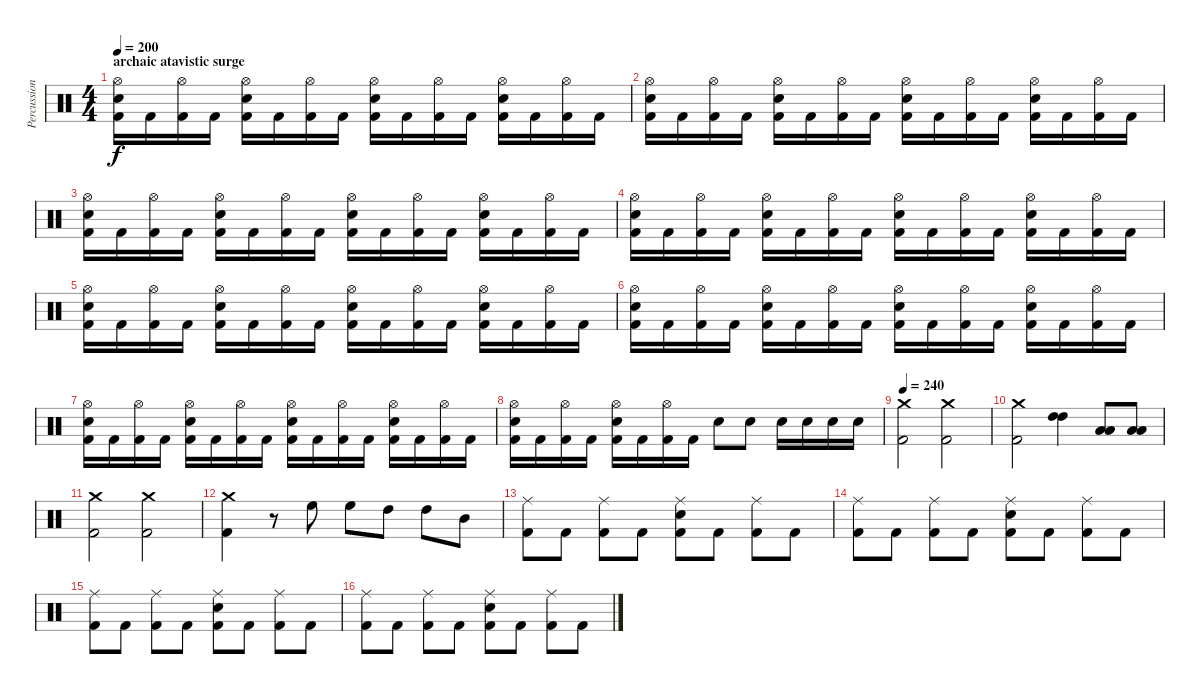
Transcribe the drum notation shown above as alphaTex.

\track ("Percussions" "Percussion") {instrument percussion}
\staff {score}
\articulation defaults
\ts (4 4)
\section ("" "archaic atavistic surge")
\tempo 200
\clef neutral
\ks c
("Hi-Hat (open)" "Electric Snare (hit)" "Kick (hit) 2").16{dy f} "Kick (hit) 2".16 ("Hi-Hat (open)" "Kick (hit) 2").16 "Kick (hit) 2".16 ("Hi-Hat (open)" "Electric Snare (hit)" "Kick (hit) 2").16 "Kick (hit) 2".16 ("Hi-Hat (open)" "Kick (hit) 2").16 "Kick (hit) 2".16 ("Hi-Hat (open)" "Electric Snare (hit)" "Kick (hit) 2").16 "Kick (hit) 2".16 ("Hi-Hat (open)" "Kick (hit) 2").16 "Kick (hit) 2".16 ("Hi-Hat (open)" "Electric Snare (hit)" "Kick (hit) 2").16 "Kick (hit) 2".16 ("Hi-Hat (open)" "Kick (hit) 2").16 "Kick (hit) 2".16 |
("Hi-Hat (open)" "Electric Snare (hit)" "Kick (hit) 2").16 "Kick (hit) 2".16 ("Hi-Hat (open)" "Kick (hit) 2").16 "Kick (hit) 2".16 ("Hi-Hat (open)" "Electric Snare (hit)" "Kick (hit) 2").16 "Kick (hit) 2".16 ("Hi-Hat (open)" "Kick (hit) 2").16 "Kick (hit) 2".16 ("Hi-Hat (open)" "Electric Snare (hit)" "Kick (hit) 2").16 "Kick (hit) 2".16 ("Hi-Hat (open)" "Kick (hit) 2").16 "Kick (hit) 2".16 ("Hi-Hat (open)" "Electric Snare (hit)" "Kick (hit) 2").16 "Kick (hit) 2".16 ("Hi-Hat (open)" "Kick (hit) 2").16 "Kick (hit) 2".16 |
("Hi-Hat (open)" "Electric Snare (hit)" "Kick (hit) 2").16 "Kick (hit) 2".16 ("Hi-Hat (open)" "Kick (hit) 2").16 "Kick (hit) 2".16 ("Hi-Hat (open)" "Electric Snare (hit)" "Kick (hit) 2").16 "Kick (hit) 2".16 ("Hi-Hat (open)" "Kick (hit) 2").16 "Kick (hit) 2".16 ("Hi-Hat (open)" "Electric Snare (hit)" "Kick (hit) 2").16 "Kick (hit) 2".16 ("Hi-Hat (open)" "Kick (hit) 2").16 "Kick (hit) 2".16 ("Hi-Hat (open)" "Electric Snare (hit)" "Kick (hit) 2").16 "Kick (hit) 2".16 ("Hi-Hat (open)" "Kick (hit) 2").16 "Kick (hit) 2".16 |
("Hi-Hat (open)" "Electric Snare (hit)" "Kick (hit) 2").16 "Kick (hit) 2".16 ("Hi-Hat (open)" "Kick (hit) 2").16 "Kick (hit) 2".16 ("Hi-Hat (open)" "Electric Snare (hit)" "Kick (hit) 2").16 "Kick (hit) 2".16 ("Hi-Hat (open)" "Kick (hit) 2").16 "Kick (hit) 2".16 ("Hi-Hat (open)" "Electric Snare (hit)" "Kick (hit) 2").16 "Kick (hit) 2".16 ("Hi-Hat (open)" "Kick (hit) 2").16 "Kick (hit) 2".16 ("Hi-Hat (open)" "Electric Snare (hit)" "Kick (hit) 2").16 "Kick (hit) 2".16 ("Hi-Hat (open)" "Kick (hit) 2").16 "Kick (hit) 2".16 |
("Hi-Hat (open)" "Electric Snare (hit)" "Kick (hit) 2").16 "Kick (hit) 2".16 ("Hi-Hat (open)" "Kick (hit) 2").16 "Kick (hit) 2".16 ("Hi-Hat (open)" "Electric Snare (hit)" "Kick (hit) 2").16 "Kick (hit) 2".16 ("Hi-Hat (open)" "Kick (hit) 2").16 "Kick (hit) 2".16 ("Hi-Hat (open)" "Electric Snare (hit)" "Kick (hit) 2").16 "Kick (hit) 2".16 ("Hi-Hat (open)" "Kick (hit) 2").16 "Kick (hit) 2".16 ("Hi-Hat (open)" "Electric Snare (hit)" "Kick (hit) 2").16 "Kick (hit) 2".16 ("Hi-Hat (open)" "Kick (hit) 2").16 "Kick (hit) 2".16 |
("Hi-Hat (open)" "Electric Snare (hit)" "Kick (hit) 2").16 "Kick (hit) 2".16 ("Hi-Hat (open)" "Kick (hit) 2").16 "Kick (hit) 2".16 ("Hi-Hat (open)" "Electric Snare (hit)" "Kick (hit) 2").16 "Kick (hit) 2".16 ("Hi-Hat (open)" "Kick (hit) 2").16 "Kick (hit) 2".16 ("Hi-Hat (open)" "Electric Snare (hit)" "Kick (hit) 2").16 "Kick (hit) 2".16 ("Hi-Hat (open)" "Kick (hit) 2").16 "Kick (hit) 2".16 ("Hi-Hat (open)" "Electric Snare (hit)" "Kick (hit) 2").16 "Kick (hit) 2".16 ("Hi-Hat (open)" "Kick (hit) 2").16 "Kick (hit) 2".16 |
("Hi-Hat (open)" "Electric Snare (hit)" "Kick (hit) 2").16 "Kick (hit) 2".16 ("Hi-Hat (open)" "Kick (hit) 2").16 "Kick (hit) 2".16 ("Hi-Hat (open)" "Electric Snare (hit)" "Kick (hit) 2").16 "Kick (hit) 2".16 ("Hi-Hat (open)" "Kick (hit) 2").16 "Kick (hit) 2".16 ("Hi-Hat (open)" "Electric Snare (hit)" "Kick (hit) 2").16 "Kick (hit) 2".16 ("Hi-Hat (open)" "Kick (hit) 2").16 "Kick (hit) 2".16 ("Hi-Hat (open)" "Electric Snare (hit)" "Kick (hit) 2").16 "Kick (hit) 2".16 ("Hi-Hat (open)" "Kick (hit) 2").16 "Kick (hit) 2".16 |
("Hi-Hat (open)" "Electric Snare (hit)" "Kick (hit) 2").16 "Kick (hit) 2".16 ("Hi-Hat (open)" "Kick (hit) 2").16 "Kick (hit) 2".16 ("Hi-Hat (open)" "Electric Snare (hit)" "Kick (hit) 2").16 "Kick (hit) 2".16 ("Hi-Hat (open)" "Kick (hit) 2").16 "Kick (hit) 2".16 "Electric Snare (hit)".8 "Electric Snare (hit)".8 "Electric Snare (hit)".16 "Electric Snare (hit)".16 "Electric Snare (hit)".16 "Electric Snare (hit)".16 |
\tempo 240
("Crash medium (hit)" "Kick (hit) 2").2 ("Crash medium (hit)" "Kick (hit) 2").2 |
("Crash medium (hit)" "Kick (hit) 2").2 ("High Tom (hit)" "High Tom (hit)").4 ("Low Tom (hit)" "Low Tom (hit)").8 ("Low Tom (hit)" "Low Tom (hit)").8 |
("Crash medium (hit)" "Kick (hit) 2").2 ("Crash medium (hit)" "Kick (hit) 2").2 |
("Crash medium (hit)" "Kick (hit) 2").4 r.8 "High Floor Tom (hit)".8 "High Floor Tom (hit)".8 "High Tom (hit)".8 "High Tom (hit)".8 "Mid Tom (hit)".8 |
("Ride (middle)" "Kick (hit) 2").8 "Kick (hit) 2".8 ("Ride (middle)" "Kick (hit) 2").8 "Kick (hit) 2".8 ("Ride (middle)" "Electric Snare (hit)" "Kick (hit) 2").8 "Kick (hit) 2".8 ("Ride (middle)" "Kick (hit) 2").8 "Kick (hit) 2".8 |
("Ride (middle)" "Kick (hit) 2").8 "Kick (hit) 2".8 ("Ride (middle)" "Kick (hit) 2").8 "Kick (hit) 2".8 ("Ride (middle)" "Electric Snare (hit)" "Kick (hit) 2").8 "Kick (hit) 2".8 ("Ride (middle)" "Kick (hit) 2").8 "Kick (hit) 2".8 |
("Ride (middle)" "Kick (hit) 2").8 "Kick (hit) 2".8 ("Ride (middle)" "Kick (hit) 2").8 "Kick (hit) 2".8 ("Ride (middle)" "Electric Snare (hit)" "Kick (hit) 2").8 "Kick (hit) 2".8 ("Ride (middle)" "Kick (hit) 2").8 "Kick (hit) 2".8 |
("Ride (middle)" "Kick (hit) 2").8 "Kick (hit) 2".8 ("Ride (middle)" "Kick (hit) 2").8 "Kick (hit) 2".8 ("Ride (middle)" "Electric Snare (hit)" "Kick (hit) 2").8 "Kick (hit) 2".8 ("Ride (middle)" "Kick (hit) 2").8 "Kick (hit) 2".8
